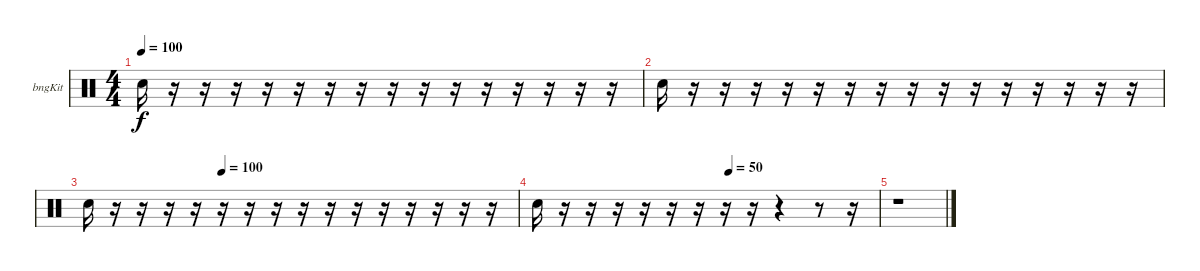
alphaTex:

\bracketExtendMode groupsimilarinstruments
\firstSystemTrackNameOrientation horizontal
\otherSystemsTrackNameOrientation horizontal
\track ("Bongos" "bngKit") {instrument percussion}
\staff {score}
\articulation defaults
\ts (4 4)
\tempo 100
\clef neutral
\ks c "Snare (hit) 2".16{dy f}
r.16 r.16 r.16 r.16 r.16 r.16 r.16 r.16 r.16 r.16 r.16 r.16 r.16 r.16 r.16 |
"Snare (hit) 2".16 r.16 r.16 r.16 r.16 r.16 r.16 r.16 r.16 r.16 r.16 r.16 r.16 r.16 r.16 r.16 |
\tempo (100 0.3125)
"Snare (hit) 2".16 r.16 r.16 r.16 r.16 r.16 r.16 r.16 r.16 r.16 r.16 r.16 r.16 r.16 r.16 r.16 |
\tempo (50 0.5625)
"Snare (hit) 2".16 r.16 r.16 r.16 r.16 r.16 r.16 r.16 r.16 r.4 r.8 r.16 |
r.1
